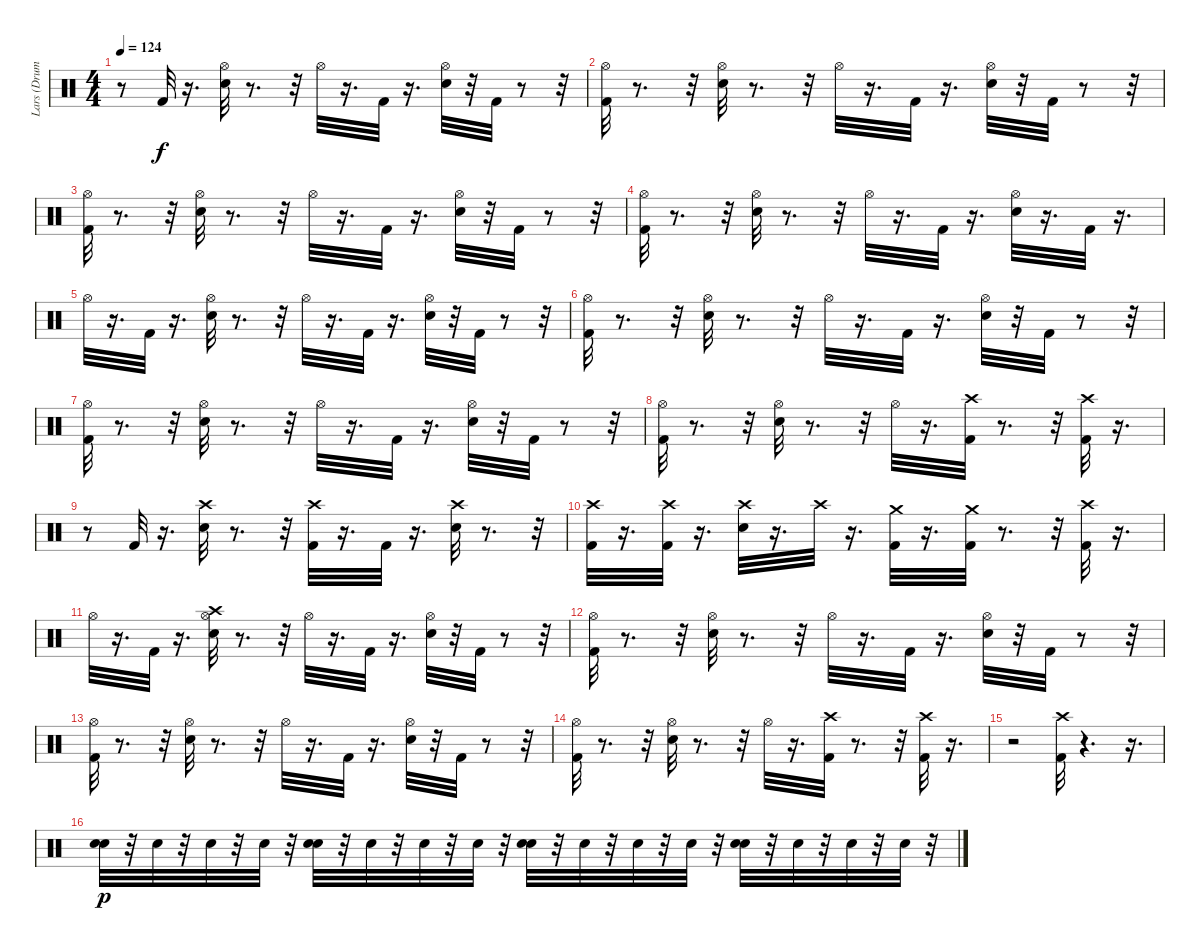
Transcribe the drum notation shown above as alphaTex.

\track ("Lars (Drums)" "Lars (Drum") {instrument percussion}
\staff {score}
\articulation defaults
\ts (4 4)
\tempo 124
\clef neutral
\ks c
r.8{dy f} "Kick (hit) 2".32 r.16{d} ("Hi-Hat (open)" "Electric Snare (hit)").32 r.8{d} r.32 "Hi-Hat (open)".32 r.16{d} "Kick (hit) 2".32 r.16{d} ("Electric Snare (hit)" "Hi-Hat (open)").32 r.32 "Kick (hit) 2".32 r.8 r.32 |
("Kick (hit) 2" "Hi-Hat (open)").32 r.8{d} r.32 ("Electric Snare (hit)" "Hi-Hat (open)").32 r.8{d} r.32 "Hi-Hat (open)".32 r.16{d} "Kick (hit) 2".32 r.16{d} ("Electric Snare (hit)" "Hi-Hat (open)").32 r.32 "Kick (hit) 2".32 r.8 r.32 |
("Kick (hit) 2" "Hi-Hat (open)").32 r.8{d} r.32 ("Electric Snare (hit)" "Hi-Hat (open)").32 r.8{d} r.32 "Hi-Hat (open)".32 r.16{d} "Kick (hit) 2".32 r.16{d} ("Electric Snare (hit)" "Hi-Hat (open)").32 r.32 "Kick (hit) 2".32 r.8 r.32 |
("Kick (hit) 2" "Hi-Hat (open)").32 r.8{d} r.32 ("Electric Snare (hit)" "Hi-Hat (open)").32 r.8{d} r.32 "Hi-Hat (open)".32 r.16{d} "Kick (hit) 2".32 r.16{d} ("Electric Snare (hit)" "Hi-Hat (open)").32 r.16{d} "Kick (hit) 2".32 r.16{d} |
"Hi-Hat (open)".32 r.16{d} "Kick (hit) 2".32 r.16{d} ("Hi-Hat (open)" "Electric Snare (hit)").32 r.8{d} r.32 "Hi-Hat (open)".32 r.16{d} "Kick (hit) 2".32 r.16{d} ("Electric Snare (hit)" "Hi-Hat (open)").32 r.32 "Kick (hit) 2".32 r.8 r.32 |
("Kick (hit) 2" "Hi-Hat (open)").32 r.8{d} r.32 ("Electric Snare (hit)" "Hi-Hat (open)").32 r.8{d} r.32 "Hi-Hat (open)".32 r.16{d} "Kick (hit) 2".32 r.16{d} ("Electric Snare (hit)" "Hi-Hat (open)").32 r.32 "Kick (hit) 2".32 r.8 r.32 |
("Kick (hit) 2" "Hi-Hat (open)").32 r.8{d} r.32 ("Electric Snare (hit)" "Hi-Hat (open)").32 r.8{d} r.32 "Hi-Hat (open)".32 r.16{d} "Kick (hit) 2".32 r.16{d} ("Electric Snare (hit)" "Hi-Hat (open)").32 r.32 "Kick (hit) 2".32 r.8 r.32 |
("Kick (hit) 2" "Hi-Hat (open)").32 r.8{d} r.32 ("Electric Snare (hit)" "Hi-Hat (open)").32 r.8{d} r.32 "Hi-Hat (open)".32 r.16{d} ("Crash high (hit)" "Kick (hit) 2").32 r.8{d} r.32 ("Crash high (hit)" "Kick (hit) 2").32 r.16{d} |
r.8 "Kick (hit) 2".32 r.16{d} ("Electric Snare (hit)" "Crash high (hit)").32 r.8{d} r.32 ("Kick (hit) 2" "Crash high (hit)").32 r.16{d} "Kick (hit) 2".32 r.16{d} ("Electric Snare (hit)" "Crash high (hit)").32 r.8{d} r.32 |
("Kick (hit) 2" "Crash high (hit)").32 r.16{d} ("Crash high (hit)" "Kick (hit) 2").32 r.16{d} ("Electric Snare (hit)" "Crash high (hit)").32 r.16{d} "Crash high (hit)".32 r.16{d} ("Crash medium (hit)" "Kick (hit) 2").32 r.16{d} ("Crash medium (hit)" "Kick (hit) 2").32 r.8{d} r.32 ("Kick (hit) 2" "Crash high (hit)").32 r.16{d} |
"Hi-Hat (open)".32 r.16{d} "Kick (hit) 2".32 r.16{d} ("Hi-Hat (open)" "Electric Snare (hit)" "Crash high (hit)").32 r.8{d} r.32 "Hi-Hat (open)".32 r.16{d} "Kick (hit) 2".32 r.16{d} ("Electric Snare (hit)" "Hi-Hat (open)").32 r.32 "Kick (hit) 2".32 r.8 r.32 |
("Kick (hit) 2" "Hi-Hat (open)").32 r.8{d} r.32 ("Electric Snare (hit)" "Hi-Hat (open)").32 r.8{d} r.32 "Hi-Hat (open)".32 r.16{d} "Kick (hit) 2".32 r.16{d} ("Electric Snare (hit)" "Hi-Hat (open)").32 r.32 "Kick (hit) 2".32 r.8 r.32 |
("Kick (hit) 2" "Hi-Hat (open)").32 r.8{d} r.32 ("Electric Snare (hit)" "Hi-Hat (open)").32 r.8{d} r.32 "Hi-Hat (open)".32 r.16{d} "Kick (hit) 2".32 r.16{d} ("Electric Snare (hit)" "Hi-Hat (open)").32 r.32 "Kick (hit) 2".32 r.8 r.32 |
("Kick (hit) 2" "Hi-Hat (open)").32 r.8{d} r.32 ("Electric Snare (hit)" "Hi-Hat (open)").32 r.8{d} r.32 "Hi-Hat (open)".32 r.16{d} ("Crash high (hit)" "Kick (hit) 2").32 r.8{d} r.32 ("Crash high (hit)" "Kick (hit) 2").32 r.16{d} |
r.2 ("Crash high (hit)" "Kick (hit) 2").32 r.4{d} r.16{d} |
("Electric Snare (hit)" "Snare (hit) 2").32{dy p} r.32 "Snare (hit) 2".32 r.32 "Snare (hit) 2".32 r.32 "Snare (hit) 2".32 r.32 ("Snare (hit) 2" "Electric Snare (hit)").32 r.32 "Snare (hit) 2".32 r.32 "Snare (hit) 2".32 r.32 "Snare (hit) 2".32 r.32 ("Electric Snare (hit)" "Snare (hit) 2").32 r.32 "Snare (hit) 2".32 r.32 "Snare (hit) 2".32 r.32 "Snare (hit) 2".32 r.32 ("Snare (hit) 2" "Electric Snare (hit)").32 r.32 "Snare (hit) 2".32 r.32 "Snare (hit) 2".32 r.32 "Snare (hit) 2".32 r.32
